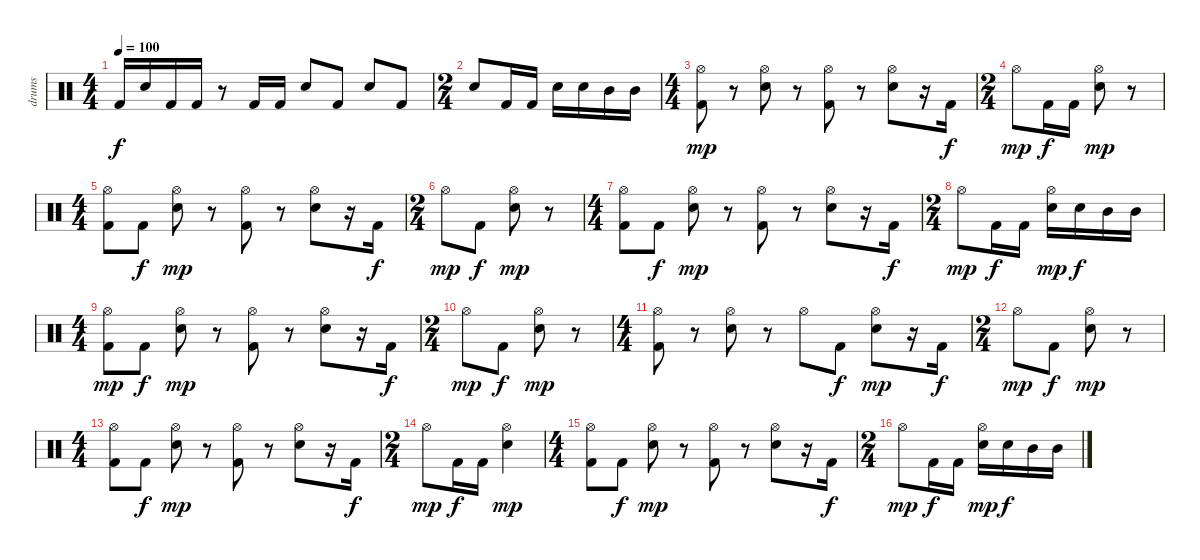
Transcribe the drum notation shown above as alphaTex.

\track ("drums" "drums") {instrument percussion}
\staff {score}
\articulation defaults
\ts (4 4)
\tempo 100
\clef neutral
\ks c "Kick (hit) 2".16{dy f} "Electric Snare (hit)".16 "Kick (hit) 2".16 "Kick (hit) 2".16
r.8 "Kick (hit) 2".16 "Kick (hit) 2".16 "Electric Snare (hit)".8 "Kick (hit) 2".8 "Electric Snare (hit)".8 "Kick (hit) 2".8 |
\ts (2 4)
"Electric Snare (hit)".8 "Kick (hit) 2".16 "Kick (hit) 2".16 "Electric Snare (hit)".16 "Electric Snare (hit)".16 "Mid Tom (hit)".16 "Mid Tom (hit)".16 |
\ts (4 4)
("Hi-Hat (open)" "Kick (hit) 2").8{dy mp} r.8 ("Electric Snare (hit)" "Hi-Hat (open)").8 r.8 ("Hi-Hat (open)" "Kick (hit) 2").8 r.8 ("Electric Snare (hit)" "Hi-Hat (open)").8 r.16 "Kick (hit) 2".16{dy f} |
\ts (2 4)
"Hi-Hat (open)".8{dy mp} "Kick (hit) 2".16{dy f} "Kick (hit) 2".16 ("Electric Snare (hit)" "Hi-Hat (open)").8{dy mp} r.8 |
\ts (4 4)
("Hi-Hat (open)" "Kick (hit) 2").8 "Kick (hit) 2".8{dy f} ("Electric Snare (hit)" "Hi-Hat (open)").8{dy mp} r.8 ("Hi-Hat (open)" "Kick (hit) 2").8 r.8 ("Electric Snare (hit)" "Hi-Hat (open)").8 r.16 "Kick (hit) 2".16{dy f} |
\ts (2 4)
"Hi-Hat (open)".8{dy mp} "Kick (hit) 2".8{dy f} ("Electric Snare (hit)" "Hi-Hat (open)").8{dy mp} r.8 |
\ts (4 4)
("Hi-Hat (open)" "Kick (hit) 2").8 "Kick (hit) 2".8{dy f} ("Electric Snare (hit)" "Hi-Hat (open)").8{dy mp} r.8 ("Hi-Hat (open)" "Kick (hit) 2").8 r.8 ("Electric Snare (hit)" "Hi-Hat (open)").8 r.16 "Kick (hit) 2".16{dy f} |
\ts (2 4)
"Hi-Hat (open)".8{dy mp} "Kick (hit) 2".16{dy f} "Kick (hit) 2".16 ("Electric Snare (hit)" "Hi-Hat (open)").16{dy mp} "Electric Snare (hit)".16{dy f} "Mid Tom (hit)".16 "Mid Tom (hit)".16 |
\ts (4 4)
("Hi-Hat (open)" "Kick (hit) 2").8{dy mp} "Kick (hit) 2".8{dy f} ("Electric Snare (hit)" "Hi-Hat (open)").8{dy mp} r.8 ("Hi-Hat (open)" "Kick (hit) 2").8 r.8 ("Electric Snare (hit)" "Hi-Hat (open)").8 r.16 "Kick (hit) 2".16{dy f} |
\ts (2 4)
"Hi-Hat (open)".8{dy mp} "Kick (hit) 2".8{dy f} ("Electric Snare (hit)" "Hi-Hat (open)").8{dy mp} r.8 |
\ts (4 4)
("Hi-Hat (open)" "Kick (hit) 2").8 r.8 ("Electric Snare (hit)" "Hi-Hat (open)").8 r.8 "Hi-Hat (open)".8 "Kick (hit) 2".8{dy f} ("Electric Snare (hit)" "Hi-Hat (open)").8{dy mp} r.16 "Kick (hit) 2".16{dy f} |
\ts (2 4)
"Hi-Hat (open)".8{dy mp} "Kick (hit) 2".8{dy f} ("Electric Snare (hit)" "Hi-Hat (open)").8{dy mp} r.8 |
\ts (4 4)
("Hi-Hat (open)" "Kick (hit) 2").8 "Kick (hit) 2".8{dy f} ("Electric Snare (hit)" "Hi-Hat (open)").8{dy mp} r.8 ("Hi-Hat (open)" "Kick (hit) 2").8 r.8 ("Electric Snare (hit)" "Hi-Hat (open)").8 r.16 "Kick (hit) 2".16{dy f} |
\ts (2 4)
"Hi-Hat (open)".8{dy mp} "Kick (hit) 2".16{dy f} "Kick (hit) 2".16 ("Electric Snare (hit)" "Hi-Hat (open)").4{dy mp} |
\ts (4 4)
("Hi-Hat (open)" "Kick (hit) 2").8 "Kick (hit) 2".8{dy f} ("Electric Snare (hit)" "Hi-Hat (open)").8{dy mp} r.8 ("Hi-Hat (open)" "Kick (hit) 2").8 r.8 ("Electric Snare (hit)" "Hi-Hat (open)").8 r.16 "Kick (hit) 2".16{dy f} |
\ts (2 4)
"Hi-Hat (open)".8{dy mp} "Kick (hit) 2".16{dy f} "Kick (hit) 2".16 ("Electric Snare (hit)" "Hi-Hat (open)").16{dy mp} "Electric Snare (hit)".16{dy f} "Mid Tom (hit)".16 "Mid Tom (hit)".16
